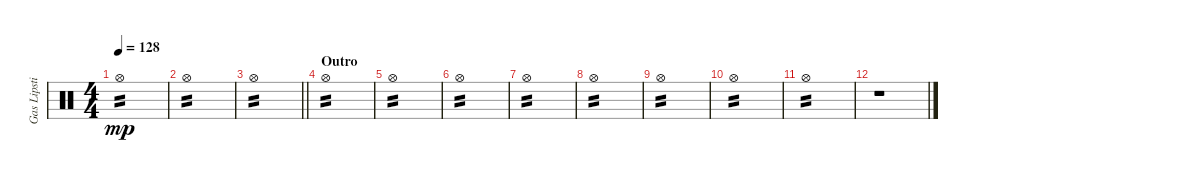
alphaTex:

\track ("Gas Lipstick (Drums)" "Gas Lipsti") {instrument percussion}
\staff {score}
\articulation defaults
\ts (4 4)
\tempo 128
\clef neutral
\ks c "Hi-Hat (open)".1{tp 2 dy mp}
|
"Hi-Hat (open)".1{tp 2} |
\barLineRight lightlight "Hi-Hat (open)".1{tp 2}
|
\section ("" "Outro")
"Hi-Hat (open)".1{tp 2} |
"Hi-Hat (open)".1{tp 2} |
"Hi-Hat (open)".1{tp 2} |
"Hi-Hat (open)".1{tp 2} |
"Hi-Hat (open)".1{tp 2} |
"Hi-Hat (open)".1{tp 2} |
"Hi-Hat (open)".1{tp 2} |
"Hi-Hat (open)".1{tp 2} |
r.1
